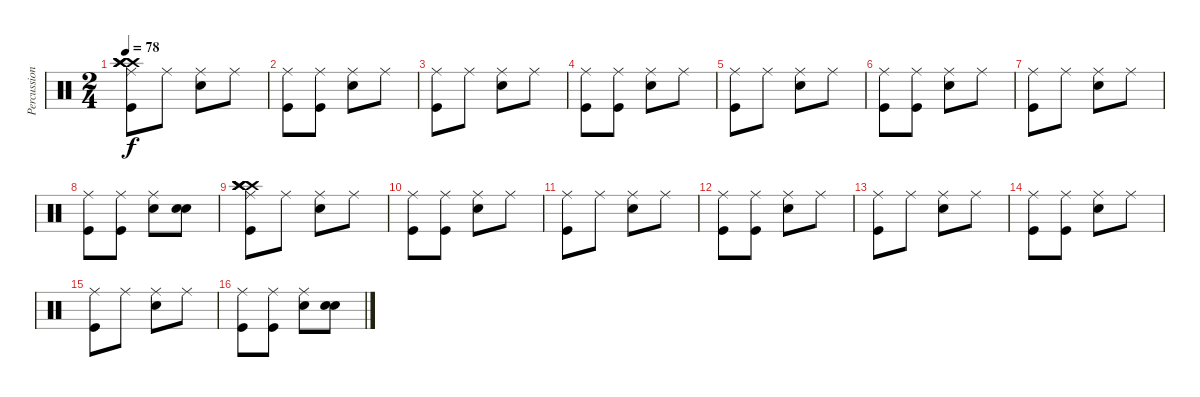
\track ("Percussion" "Percussion") {instrument percussion}
\staff {score}
\articulation defaults
\ts (2 4)
\tempo 78
\clef neutral
\ks c
("Ride (middle)" "Kick (hit)" "Crash high (hit)" "Crash high (hit)" "Crash high (hit)" "Crash high (hit)").8{dy f} "Ride (middle)".8 ("Ride (middle)" "Metronome (bell)").8 "Ride (middle)".8 |
("Ride (middle)" "Kick (hit)").8 ("Ride (middle)" "Kick (hit)").8 ("Ride (middle)" "Metronome (bell)").8 "Ride (middle)".8 |
("Ride (middle)" "Kick (hit)").8 "Ride (middle)".8 ("Ride (middle)" "Metronome (bell)").8 "Ride (middle)".8 |
("Ride (middle)" "Kick (hit)").8 ("Ride (middle)" "Kick (hit)").8 ("Ride (middle)" "Metronome (bell)").8 "Ride (middle)".8 |
("Ride (middle)" "Kick (hit)").8 "Ride (middle)".8 ("Ride (middle)" "Metronome (bell)").8 "Ride (middle)".8 |
("Ride (middle)" "Kick (hit)").8 ("Ride (middle)" "Kick (hit)").8 ("Ride (middle)" "Metronome (bell)").8 "Ride (middle)".8 |
("Ride (middle)" "Kick (hit)").8 "Ride (middle)".8 ("Ride (middle)" "Metronome (bell)").8 "Ride (middle)".8 |
("Ride (middle)" "Kick (hit)").8 ("Ride (middle)" "Kick (hit)").8 ("Ride (middle)" "Metronome (bell)").8 ("Snare (hit)" "Metronome (bell)").8 |
("Ride (middle)" "Kick (hit)" "Crash high (hit)" "Crash high (hit)" "Crash high (hit)" "Crash high (hit)").8 "Ride (middle)".8 ("Ride (middle)" "Metronome (bell)").8 "Ride (middle)".8 |
("Ride (middle)" "Kick (hit)").8 ("Ride (middle)" "Kick (hit)").8 ("Ride (middle)" "Metronome (bell)").8 "Ride (middle)".8 |
("Ride (middle)" "Kick (hit)").8 "Ride (middle)".8 ("Ride (middle)" "Metronome (bell)").8 "Ride (middle)".8 |
("Ride (middle)" "Kick (hit)").8 ("Ride (middle)" "Kick (hit)").8 ("Ride (middle)" "Metronome (bell)").8 "Ride (middle)".8 |
("Ride (middle)" "Kick (hit)").8 "Ride (middle)".8 ("Ride (middle)" "Metronome (bell)").8 "Ride (middle)".8 |
("Ride (middle)" "Kick (hit)").8 ("Ride (middle)" "Kick (hit)").8 ("Ride (middle)" "Metronome (bell)").8 "Ride (middle)".8 |
("Ride (middle)" "Kick (hit)").8 "Ride (middle)".8 ("Ride (middle)" "Metronome (bell)").8 "Ride (middle)".8 |
("Ride (middle)" "Kick (hit)").8 ("Ride (middle)" "Kick (hit)").8 ("Ride (middle)" "Metronome (bell)").8 ("Snare (hit)" "Metronome (bell)").8
